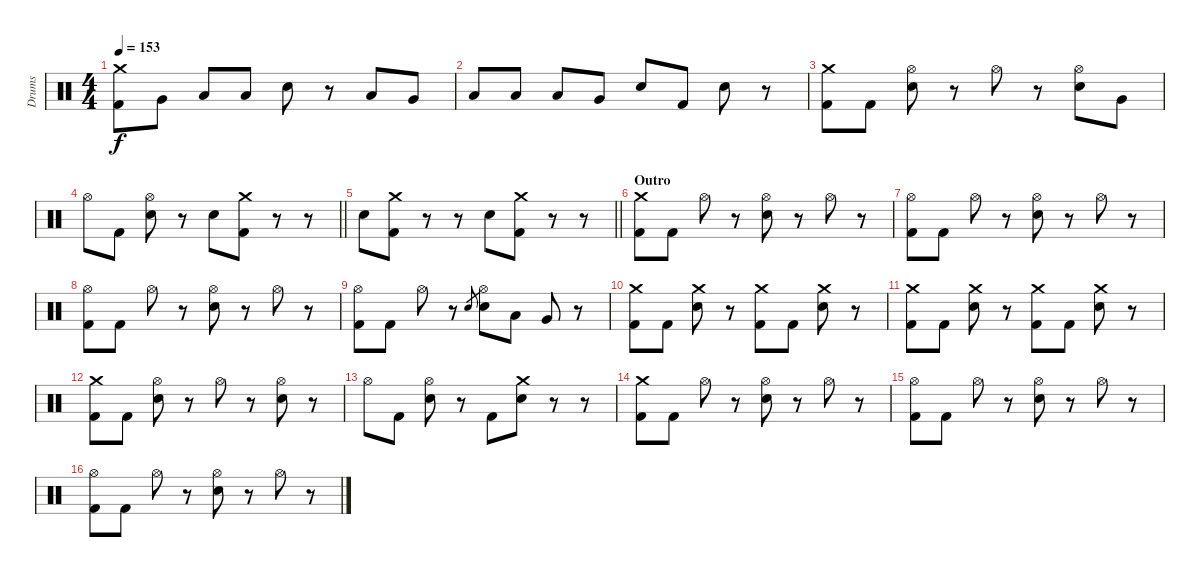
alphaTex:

\track ("Drums" "Drums") {instrument percussion}
\staff {score}
\articulation defaults
\ts (4 4)
\tempo 153
\clef neutral
\ks c
("Crash medium (hit)" "Kick (hit) 2").8{dy f} "Very Low Tom (hit)".8 "Low Tom (hit)".8 "Low Tom (hit)".8 "Electric Snare (hit)".8 r.8 "Low Tom (hit)".8 "Very Low Tom (hit)".8 |
"Low Tom (hit)".8 "Low Tom (hit)".8 "Low Tom (hit)".8 "Very Low Tom (hit)".8 "Electric Snare (hit)".8 "Kick (hit) 2".8 "Electric Snare (hit)".8 r.8 |
("Crash medium (hit)" "Kick (hit) 2").8 "Kick (hit) 2".8 ("Hi-Hat (open)" "Electric Snare (hit)").8 r.8 "Hi-Hat (open)".8 r.8 ("Hi-Hat (open)" "Electric Snare (hit)").8 "Very Low Tom (hit)".8 |
\barLineRight lightlight "Hi-Hat (open)".8 "Kick (hit) 2".8
("Hi-Hat (open)" "Electric Snare (hit)").8 r.8 "Electric Snare (hit)".8 ("Crash medium (hit)" "Kick (hit) 2").8 r.8 r.8 |
\barLineRight lightlight "Electric Snare (hit)".8
("Crash medium (hit)" "Kick (hit) 2").8 r.8 r.8 "Electric Snare (hit)".8 ("Crash medium (hit)" "Kick (hit) 2").8 r.8 r.8 |
\section ("" "Outro")
("Crash medium (hit)" "Kick (hit) 2").8 "Kick (hit) 2".8 "Hi-Hat (open)".8 r.8 ("Hi-Hat (open)" "Electric Snare (hit)").8 r.8 "Hi-Hat (open)".8 r.8 |
("Hi-Hat (open)" "Kick (hit) 2").8 "Kick (hit) 2".8 "Hi-Hat (open)".8 r.8 ("Hi-Hat (open)" "Electric Snare (hit)").8 r.8 "Hi-Hat (open)".8 r.8 |
("Hi-Hat (open)" "Kick (hit) 2").8 "Kick (hit) 2".8 "Hi-Hat (open)".8 r.8 ("Hi-Hat (open)" "Electric Snare (hit)").8 r.8 "Hi-Hat (open)".8 r.8 |
("Hi-Hat (open)" "Kick (hit) 2").8 "Kick (hit) 2".8 "Hi-Hat (open)".8 r.8 "Electric Snare (hit)".8{gr} ("Hi-Hat (open)" "Electric Snare (hit)").8 "Low Tom (hit)".8 "Very Low Tom (hit)".8 r.8 |
("Crash medium (hit)" "Kick (hit) 2").8 "Kick (hit) 2".8 ("Crash medium (hit)" "Electric Snare (hit)").8 r.8 ("Crash medium (hit)" "Kick (hit) 2").8 "Kick (hit) 2".8 ("Crash medium (hit)" "Electric Snare (hit)").8 r.8 |
("Crash medium (hit)" "Kick (hit) 2").8 "Kick (hit) 2".8 ("Crash medium (hit)" "Electric Snare (hit)").8 r.8 ("Crash medium (hit)" "Kick (hit) 2").8 "Kick (hit) 2".8 ("Crash medium (hit)" "Electric Snare (hit)").8 r.8 |
("Crash medium (hit)" "Kick (hit) 2").8 "Kick (hit) 2".8 ("Hi-Hat (open)" "Electric Snare (hit)").8 r.8 "Hi-Hat (open)".8 r.8 ("Hi-Hat (open)" "Electric Snare (hit)").8 r.8 |
"Hi-Hat (open)".8 "Kick (hit) 2".8 ("Hi-Hat (open)" "Electric Snare (hit)").8 r.8 "Kick (hit) 2".8 ("Crash medium (hit)" "Electric Snare (hit)").8 r.8 r.8 |
("Crash medium (hit)" "Kick (hit) 2").8 "Kick (hit) 2".8 "Hi-Hat (open)".8 r.8 ("Hi-Hat (open)" "Electric Snare (hit)").8 r.8 "Hi-Hat (open)".8 r.8 |
("Hi-Hat (open)" "Kick (hit) 2").8 "Kick (hit) 2".8 "Hi-Hat (open)".8 r.8 ("Hi-Hat (open)" "Electric Snare (hit)").8 r.8 "Hi-Hat (open)".8 r.8 |
("Hi-Hat (open)" "Kick (hit) 2").8 "Kick (hit) 2".8 "Hi-Hat (open)".8 r.8 ("Hi-Hat (open)" "Electric Snare (hit)").8 r.8 "Hi-Hat (open)".8 r.8
